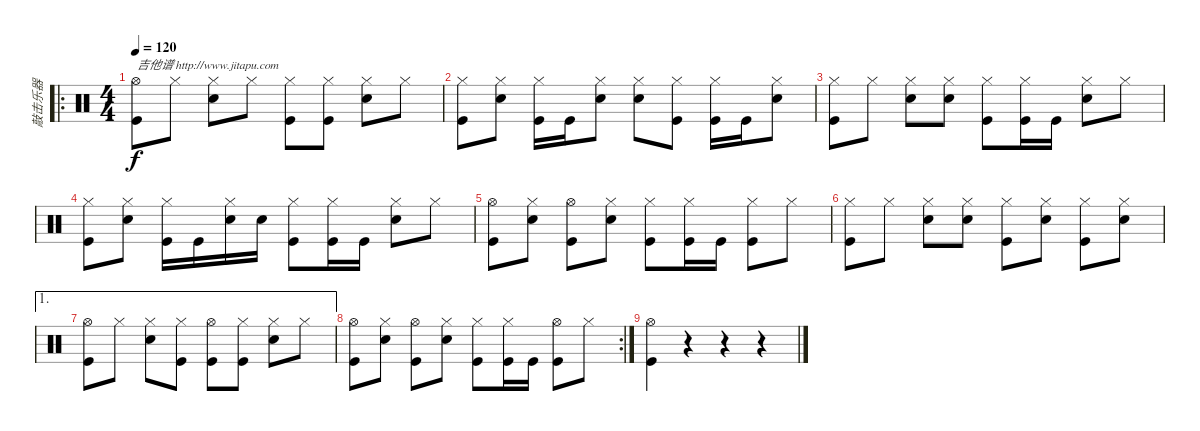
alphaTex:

\track ("敲击乐器" "敲击乐器") {instrument percussion}
\staff {score}
\articulation defaults
\ro
\ts (4 4)
\tempo 120
\clef neutral
\ks c
("Hi-Hat (open)" "Kick (hit)").8{txt "吉他谱 http://www.jitapu.com" dy f} "Hi-Hat (closed)".8 ("Hi-Hat (closed)" "Electric Snare (hit)").8 "Hi-Hat (closed)".8 ("Hi-Hat (closed)" "Kick (hit)").8 ("Hi-Hat (closed)" "Kick (hit)").8 ("Hi-Hat (closed)" "Electric Snare (hit)").8 "Hi-Hat (closed)".8 |
("Hi-Hat (closed)" "Kick (hit)").8 ("Hi-Hat (closed)" "Electric Snare (hit)").8 ("Hi-Hat (closed)" "Kick (hit)").16 "Kick (hit)".16 ("Hi-Hat (closed)" "Electric Snare (hit)").8 ("Hi-Hat (closed)" "Electric Snare (hit)").8 ("Hi-Hat (closed)" "Kick (hit)").8 ("Hi-Hat (closed)" "Kick (hit)").16 "Kick (hit)".16 ("Hi-Hat (closed)" "Electric Snare (hit)").8 |
("Hi-Hat (closed)" "Kick (hit)").8 "Hi-Hat (closed)".8 ("Hi-Hat (closed)" "Electric Snare (hit)").8 ("Hi-Hat (closed)" "Electric Snare (hit)").8 ("Hi-Hat (closed)" "Kick (hit)").8 ("Hi-Hat (closed)" "Kick (hit)").16 "Kick (hit)".16 ("Hi-Hat (closed)" "Electric Snare (hit)").8 "Hi-Hat (closed)".8 |
("Hi-Hat (closed)" "Kick (hit)").8 ("Hi-Hat (closed)" "Electric Snare (hit)").8 ("Hi-Hat (closed)" "Kick (hit)").16 "Kick (hit)".16 ("Hi-Hat (closed)" "Electric Snare (hit)").16 "Electric Snare (hit)".16 ("Hi-Hat (closed)" "Kick (hit)").8 ("Hi-Hat (closed)" "Kick (hit)").16 "Kick (hit)".16 ("Hi-Hat (closed)" "Electric Snare (hit)").8 "Hi-Hat (closed)".8 |
("Hi-Hat (open)" "Kick (hit)").8 ("Hi-Hat (closed)" "Electric Snare (hit)").8 ("Hi-Hat (open)" "Kick (hit)").8 ("Hi-Hat (closed)" "Electric Snare (hit)").8 ("Hi-Hat (closed)" "Kick (hit)").8 ("Hi-Hat (closed)" "Kick (hit)").16 "Kick (hit)".16 ("Hi-Hat (closed)" "Kick (hit)").8 "Hi-Hat (closed)".8 |
("Hi-Hat (closed)" "Kick (hit)").8 "Hi-Hat (closed)".8 ("Hi-Hat (closed)" "Electric Snare (hit)").8 ("Hi-Hat (closed)" "Electric Snare (hit)").8 ("Hi-Hat (closed)" "Kick (hit)").8 ("Hi-Hat (closed)" "Electric Snare (hit)").8 ("Hi-Hat (closed)" "Kick (hit)").8 ("Hi-Hat (closed)" "Electric Snare (hit)").8 |
\ae 1
("Hi-Hat (open)" "Kick (hit)").8 "Hi-Hat (closed)".8 ("Hi-Hat (closed)" "Electric Snare (hit)").8 ("Hi-Hat (closed)" "Kick (hit)").8 ("Hi-Hat (open)" "Kick (hit)").8 ("Hi-Hat (closed)" "Kick (hit)").8 ("Hi-Hat (closed)" "Electric Snare (hit)").8 "Hi-Hat (closed)".8 |
\rc 2
("Hi-Hat (open)" "Kick (hit)").8 ("Hi-Hat (closed)" "Electric Snare (hit)").8 ("Hi-Hat (open)" "Kick (hit)").8 ("Hi-Hat (closed)" "Electric Snare (hit)").8 ("Hi-Hat (closed)" "Kick (hit)").8 ("Hi-Hat (closed)" "Kick (hit)").16 "Kick (hit)".16 ("Hi-Hat (open)" "Kick (hit)").8 "Hi-Hat (closed)".8 |
("Hi-Hat (open)" "Kick (hit)").4 r.4 r.4 r.4
